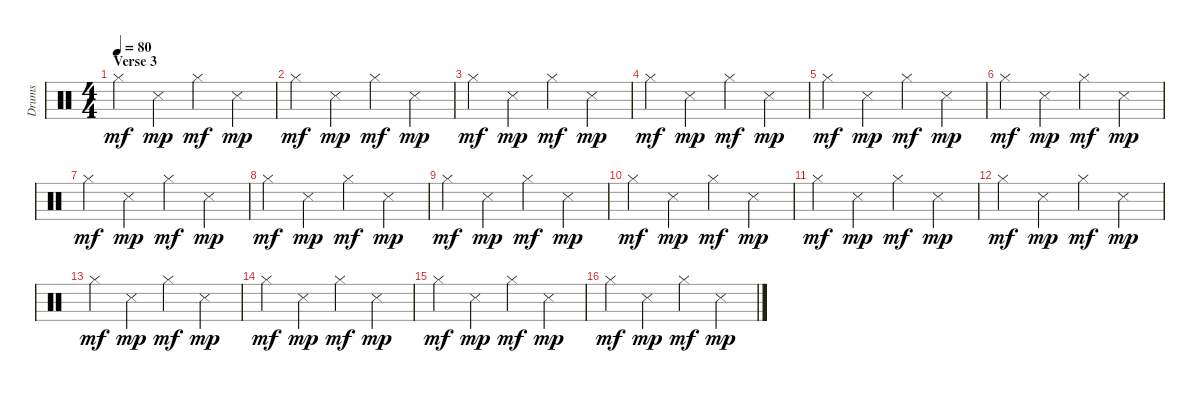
\track ("Drums" "Drums") {instrument percussion}
\staff {score}
\articulation defaults
\ts (4 4)
\section ("" "Verse 3")
\tempo 80
\clef neutral
\ks c "Hi-Hat (closed)".4{dy mf} "Snare (side stick) 3".4{dy mp} "Hi-Hat (closed)".4{dy mf} "Snare (side stick) 3".4{dy mp}
|
"Hi-Hat (closed)".4{dy mf} "Snare (side stick) 3".4{dy mp} "Hi-Hat (closed)".4{dy mf} "Snare (side stick) 3".4{dy mp} |
"Hi-Hat (closed)".4{dy mf} "Snare (side stick) 3".4{dy mp} "Hi-Hat (closed)".4{dy mf} "Snare (side stick) 3".4{dy mp} |
"Hi-Hat (closed)".4{dy mf} "Snare (side stick) 3".4{dy mp} "Hi-Hat (closed)".4{dy mf} "Snare (side stick) 3".4{dy mp} |
"Hi-Hat (closed)".4{dy mf} "Snare (side stick) 3".4{dy mp} "Hi-Hat (closed)".4{dy mf} "Snare (side stick) 3".4{dy mp} |
"Hi-Hat (closed)".4{dy mf} "Snare (side stick) 3".4{dy mp} "Hi-Hat (closed)".4{dy mf} "Snare (side stick) 3".4{dy mp} |
"Hi-Hat (closed)".4{dy mf} "Snare (side stick) 3".4{dy mp} "Hi-Hat (closed)".4{dy mf} "Snare (side stick) 3".4{dy mp} |
"Hi-Hat (closed)".4{dy mf} "Snare (side stick) 3".4{dy mp} "Hi-Hat (closed)".4{dy mf} "Snare (side stick) 3".4{dy mp} |
"Hi-Hat (closed)".4{dy mf} "Snare (side stick) 3".4{dy mp} "Hi-Hat (closed)".4{dy mf} "Snare (side stick) 3".4{dy mp} |
"Hi-Hat (closed)".4{dy mf} "Snare (side stick) 3".4{dy mp} "Hi-Hat (closed)".4{dy mf} "Snare (side stick) 3".4{dy mp} |
"Hi-Hat (closed)".4{dy mf} "Snare (side stick) 3".4{dy mp} "Hi-Hat (closed)".4{dy mf} "Snare (side stick) 3".4{dy mp} |
"Hi-Hat (closed)".4{dy mf} "Snare (side stick) 3".4{dy mp} "Hi-Hat (closed)".4{dy mf} "Snare (side stick) 3".4{dy mp} |
"Hi-Hat (closed)".4{dy mf} "Snare (side stick) 3".4{dy mp} "Hi-Hat (closed)".4{dy mf} "Snare (side stick) 3".4{dy mp} |
"Hi-Hat (closed)".4{dy mf} "Snare (side stick) 3".4{dy mp} "Hi-Hat (closed)".4{dy mf} "Snare (side stick) 3".4{dy mp} |
"Hi-Hat (closed)".4{dy mf} "Snare (side stick) 3".4{dy mp} "Hi-Hat (closed)".4{dy mf} "Snare (side stick) 3".4{dy mp} |
"Hi-Hat (closed)".4{dy mf} "Snare (side stick) 3".4{dy mp} "Hi-Hat (closed)".4{dy mf} "Snare (side stick) 3".4{dy mp}
